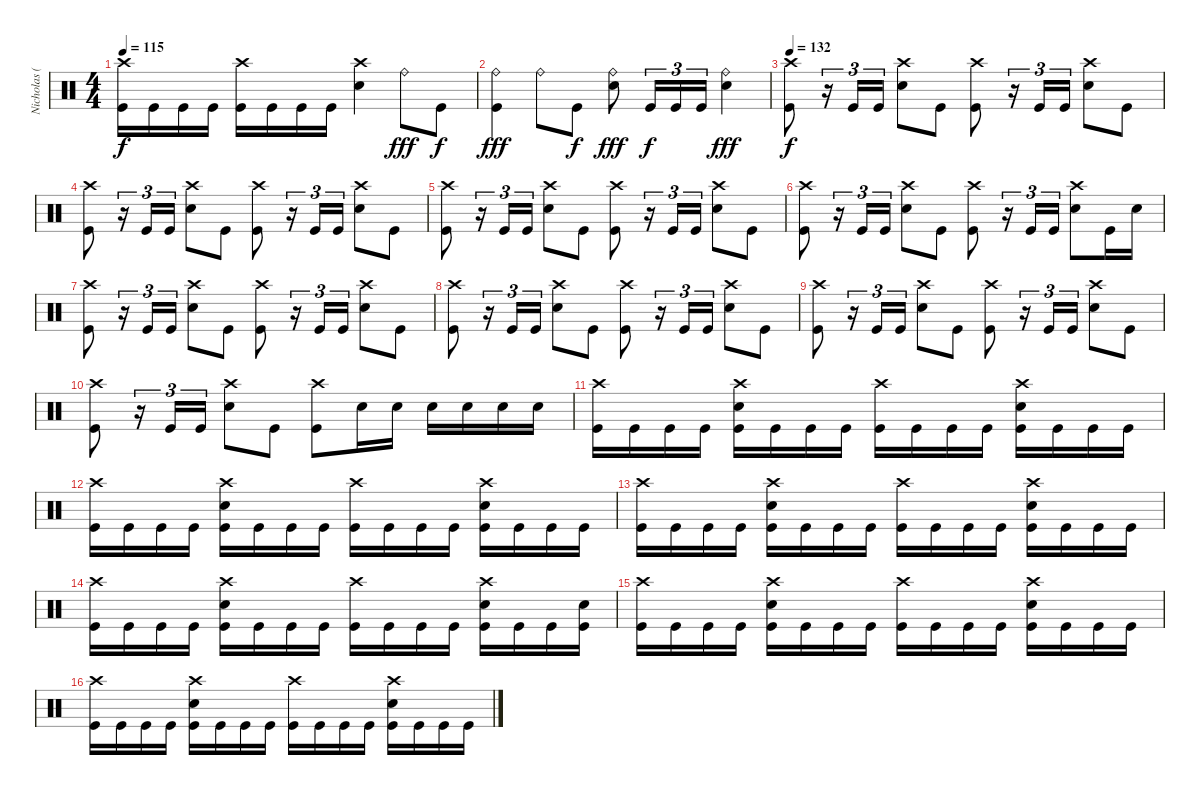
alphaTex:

\track ("Nicholas (Drums)" "Nicholas (") {instrument percussion}
\staff {score}
\articulation defaults
\ts (4 4)
\tempo 115
\clef neutral
\ks c
("Crash high (hit)" "Kick (hit)").16{dy f} "Kick (hit)".16 "Kick (hit)".16 "Kick (hit)".16 ("Crash high (hit)" "Kick (hit)").16 "Kick (hit)".16 "Kick (hit)".16 "Kick (hit)".16 ("Crash high (hit)" "Electric Snare (hit)").4 "Ride (bell)".8{dy fff} "Kick (hit)".8{dy f} |
("Ride (bell)" "Kick (hit)").4{dy fff} "Ride (bell)".8 "Kick (hit)".8{dy f} ("Ride (bell)" "Electric Snare (hit)").8{dy fff} "Kick (hit)".16{tu (3 2) dy f} "Kick (hit)".16{tu (3 2)} "Kick (hit)".16{tu (3 2)} ("Ride (bell)" "Electric Snare (hit)").4{dy fff} |
\tempo 132
("Crash high (hit)" "Kick (hit)").8{dy f} r.16{tu (3 2)} "Kick (hit)".16{tu (3 2)} "Kick (hit)".16{tu (3 2)} ("Crash high (hit)" "Electric Snare (hit)").8 "Kick (hit)".8 ("Crash high (hit)" "Kick (hit)").8 r.16{tu (3 2)} "Kick (hit)".16{tu (3 2)} "Kick (hit)".16{tu (3 2)} ("Crash high (hit)" "Electric Snare (hit)").8 "Kick (hit)".8 |
("Crash high (hit)" "Kick (hit)").8 r.16{tu (3 2)} "Kick (hit)".16{tu (3 2)} "Kick (hit)".16{tu (3 2)} ("Crash high (hit)" "Electric Snare (hit)").8 "Kick (hit)".8 ("Crash high (hit)" "Kick (hit)").8 r.16{tu (3 2)} "Kick (hit)".16{tu (3 2)} "Kick (hit)".16{tu (3 2)} ("Crash high (hit)" "Electric Snare (hit)").8 "Kick (hit)".8 |
("Crash high (hit)" "Kick (hit)").8 r.16{tu (3 2)} "Kick (hit)".16{tu (3 2)} "Kick (hit)".16{tu (3 2)} ("Crash high (hit)" "Electric Snare (hit)").8 "Kick (hit)".8 ("Crash high (hit)" "Kick (hit)").8 r.16{tu (3 2)} "Kick (hit)".16{tu (3 2)} "Kick (hit)".16{tu (3 2)} ("Crash high (hit)" "Electric Snare (hit)").8 "Kick (hit)".8 |
("Crash high (hit)" "Kick (hit)").8 r.16{tu (3 2)} "Kick (hit)".16{tu (3 2)} "Kick (hit)".16{tu (3 2)} ("Crash high (hit)" "Electric Snare (hit)").8 "Kick (hit)".8 ("Crash high (hit)" "Kick (hit)").8 r.16{tu (3 2)} "Kick (hit)".16{tu (3 2)} "Kick (hit)".16{tu (3 2)} ("Crash high (hit)" "Electric Snare (hit)").8 "Kick (hit)".16 "Electric Snare (hit)".16 |
("Crash high (hit)" "Kick (hit)").8 r.16{tu (3 2)} "Kick (hit)".16{tu (3 2)} "Kick (hit)".16{tu (3 2)} ("Crash high (hit)" "Electric Snare (hit)").8 "Kick (hit)".8 ("Crash high (hit)" "Kick (hit)").8 r.16{tu (3 2)} "Kick (hit)".16{tu (3 2)} "Kick (hit)".16{tu (3 2)} ("Crash high (hit)" "Electric Snare (hit)").8 "Kick (hit)".8 |
("Crash high (hit)" "Kick (hit)").8 r.16{tu (3 2)} "Kick (hit)".16{tu (3 2)} "Kick (hit)".16{tu (3 2)} ("Crash high (hit)" "Electric Snare (hit)").8 "Kick (hit)".8 ("Crash high (hit)" "Kick (hit)").8 r.16{tu (3 2)} "Kick (hit)".16{tu (3 2)} "Kick (hit)".16{tu (3 2)} ("Crash high (hit)" "Electric Snare (hit)").8 "Kick (hit)".8 |
("Crash high (hit)" "Kick (hit)").8 r.16{tu (3 2)} "Kick (hit)".16{tu (3 2)} "Kick (hit)".16{tu (3 2)} ("Crash high (hit)" "Electric Snare (hit)").8 "Kick (hit)".8 ("Crash high (hit)" "Kick (hit)").8 r.16{tu (3 2)} "Kick (hit)".16{tu (3 2)} "Kick (hit)".16{tu (3 2)} ("Crash high (hit)" "Electric Snare (hit)").8 "Kick (hit)".8 |
("Crash high (hit)" "Kick (hit)").8 r.16{tu (3 2)} "Kick (hit)".16{tu (3 2)} "Kick (hit)".16{tu (3 2)} ("Crash high (hit)" "Electric Snare (hit)").8 "Kick (hit)".8 ("Crash high (hit)" "Kick (hit)").8 "Electric Snare (hit)".16 "Electric Snare (hit)".16 "Electric Snare (hit)".16 "Electric Snare (hit)".16 "Electric Snare (hit)".16 "Electric Snare (hit)".16 |
("Crash high (hit)" "Kick (hit)").16 "Kick (hit)".16 "Kick (hit)".16 "Kick (hit)".16 ("Crash high (hit)" "Electric Snare (hit)" "Kick (hit)").16 "Kick (hit)".16 "Kick (hit)".16 "Kick (hit)".16 ("Crash high (hit)" "Kick (hit)").16 "Kick (hit)".16 "Kick (hit)".16 "Kick (hit)".16 ("Crash high (hit)" "Electric Snare (hit)" "Kick (hit)").16 "Kick (hit)".16 "Kick (hit)".16 "Kick (hit)".16 |
("Crash high (hit)" "Kick (hit)").16 "Kick (hit)".16 "Kick (hit)".16 "Kick (hit)".16 ("Crash high (hit)" "Electric Snare (hit)" "Kick (hit)").16 "Kick (hit)".16 "Kick (hit)".16 "Kick (hit)".16 ("Crash high (hit)" "Kick (hit)").16 "Kick (hit)".16 "Kick (hit)".16 "Kick (hit)".16 ("Crash high (hit)" "Electric Snare (hit)" "Kick (hit)").16 "Kick (hit)".16 "Kick (hit)".16 "Kick (hit)".16 |
("Crash high (hit)" "Kick (hit)").16 "Kick (hit)".16 "Kick (hit)".16 "Kick (hit)".16 ("Crash high (hit)" "Electric Snare (hit)" "Kick (hit)").16 "Kick (hit)".16 "Kick (hit)".16 "Kick (hit)".16 ("Crash high (hit)" "Kick (hit)").16 "Kick (hit)".16 "Kick (hit)".16 "Kick (hit)".16 ("Crash high (hit)" "Electric Snare (hit)" "Kick (hit)").16 "Kick (hit)".16 "Kick (hit)".16 "Kick (hit)".16 |
("Crash high (hit)" "Kick (hit)").16 "Kick (hit)".16 "Kick (hit)".16 "Kick (hit)".16 ("Crash high (hit)" "Electric Snare (hit)" "Kick (hit)").16 "Kick (hit)".16 "Kick (hit)".16 "Kick (hit)".16 ("Crash high (hit)" "Kick (hit)").16 "Kick (hit)".16 "Kick (hit)".16 "Kick (hit)".16 ("Crash high (hit)" "Electric Snare (hit)" "Kick (hit)").16 "Kick (hit)".16 "Kick (hit)".16 ("Electric Snare (hit)" "Kick (hit)").16 |
("Crash high (hit)" "Kick (hit)").16 "Kick (hit)".16 "Kick (hit)".16 "Kick (hit)".16 ("Crash high (hit)" "Electric Snare (hit)" "Kick (hit)").16 "Kick (hit)".16 "Kick (hit)".16 "Kick (hit)".16 ("Crash high (hit)" "Kick (hit)").16 "Kick (hit)".16 "Kick (hit)".16 "Kick (hit)".16 ("Crash high (hit)" "Electric Snare (hit)" "Kick (hit)").16 "Kick (hit)".16 "Kick (hit)".16 "Kick (hit)".16 |
("Crash high (hit)" "Kick (hit)").16 "Kick (hit)".16 "Kick (hit)".16 "Kick (hit)".16 ("Crash high (hit)" "Electric Snare (hit)" "Kick (hit)").16 "Kick (hit)".16 "Kick (hit)".16 "Kick (hit)".16 ("Crash high (hit)" "Kick (hit)").16 "Kick (hit)".16 "Kick (hit)".16 "Kick (hit)".16 ("Crash high (hit)" "Electric Snare (hit)" "Kick (hit)").16 "Kick (hit)".16 "Kick (hit)".16 "Kick (hit)".16
